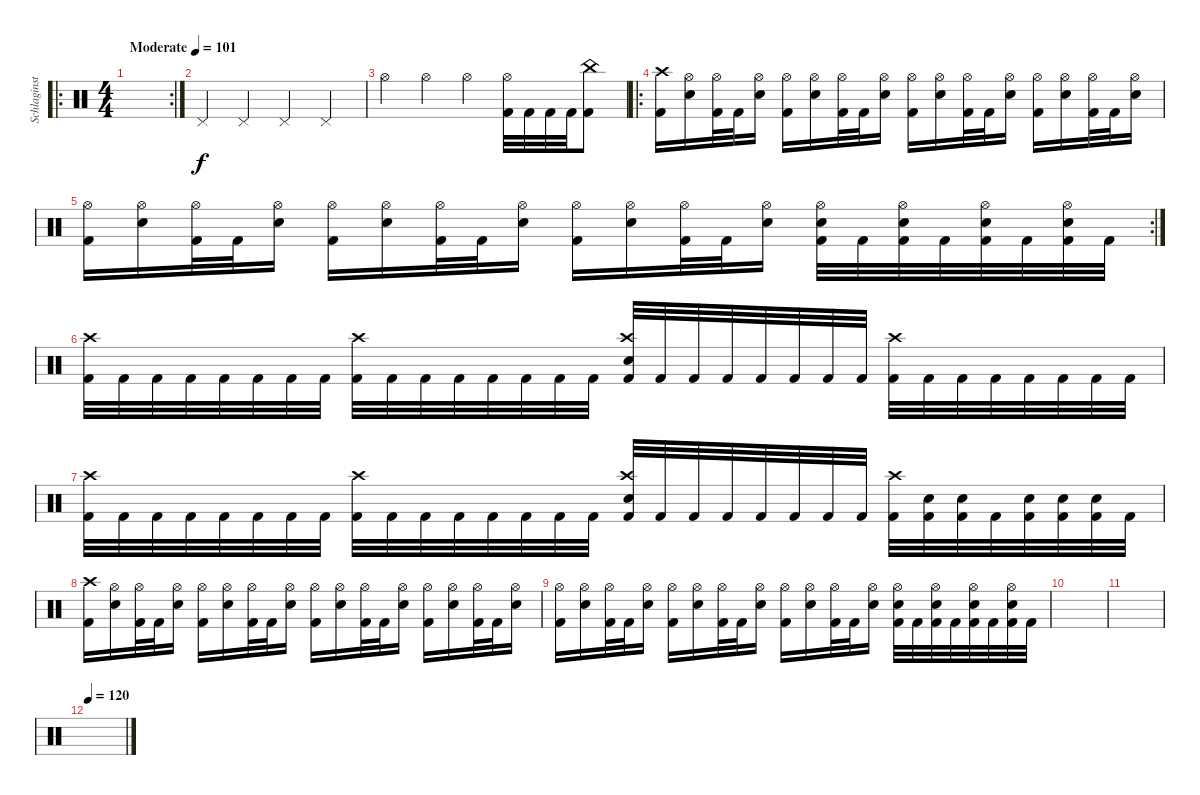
\track ("Schlaginstrumente - Auswahl" "Schlaginst") {instrument percussion}
\staff {score}
\articulation defaults
\ro
\rc 2
\ts (4 4)
\tempo (101 "Moderate")
\clef neutral
\ks c
|
"Pedal Hi-Hat (hit)".4 "Pedal Hi-Hat (hit)".4 "Pedal Hi-Hat (hit)".4 "Pedal Hi-Hat (hit)".4 |
"Hi-Hat (open)".4 "Hi-Hat (open)".4 "Hi-Hat (open)".4 ("Hi-Hat (open)" "Kick (hit) 2").32 "Kick (hit) 2".32 "Kick (hit) 2".32 "Kick (hit) 2".32 ("China (hit)" "Kick (hit) 2").8 |
\ro
("Crash high (hit)" "Kick (hit) 2").16 ("Hi-Hat (open)" "Electric Snare (hit)").16 ("Hi-Hat (open)" "Kick (hit) 2").32 "Kick (hit) 2".32 ("Hi-Hat (open)" "Electric Snare (hit)").16 ("Hi-Hat (open)" "Kick (hit) 2").16 ("Hi-Hat (open)" "Electric Snare (hit)").16 ("Hi-Hat (open)" "Kick (hit) 2").32 "Kick (hit) 2".32 ("Hi-Hat (open)" "Electric Snare (hit)").16 ("Hi-Hat (open)" "Kick (hit) 2").16 ("Hi-Hat (open)" "Electric Snare (hit)").16 ("Hi-Hat (open)" "Kick (hit) 2").32 "Kick (hit) 2".32 ("Hi-Hat (open)" "Electric Snare (hit)").16 ("Hi-Hat (open)" "Kick (hit) 2").16 ("Hi-Hat (open)" "Electric Snare (hit)").16 ("Hi-Hat (open)" "Kick (hit) 2").32 "Kick (hit) 2".32 ("Hi-Hat (open)" "Electric Snare (hit)").16 |
\rc 2
("Hi-Hat (open)" "Kick (hit) 2").16 ("Hi-Hat (open)" "Electric Snare (hit)").16 ("Hi-Hat (open)" "Kick (hit) 2").32 "Kick (hit) 2".32 ("Hi-Hat (open)" "Electric Snare (hit)").16 ("Hi-Hat (open)" "Kick (hit) 2").16 ("Hi-Hat (open)" "Electric Snare (hit)").16 ("Hi-Hat (open)" "Kick (hit) 2").32 "Kick (hit) 2".32 ("Hi-Hat (open)" "Electric Snare (hit)").16 ("Hi-Hat (open)" "Kick (hit) 2").16 ("Hi-Hat (open)" "Electric Snare (hit)").16 ("Hi-Hat (open)" "Kick (hit) 2").32 "Kick (hit) 2".32 ("Hi-Hat (open)" "Electric Snare (hit)").16 ("Hi-Hat (open)" "Electric Snare (hit)" "Kick (hit) 2").32 "Kick (hit) 2".32 ("Hi-Hat (open)" "Electric Snare (hit)" "Kick (hit) 2").32 "Kick (hit) 2".32 ("Hi-Hat (open)" "Electric Snare (hit)" "Kick (hit) 2").32 "Kick (hit) 2".32 ("Hi-Hat (open)" "Electric Snare (hit)" "Kick (hit) 2").32 "Kick (hit) 2".32 |
("Crash high (hit)" "Kick (hit) 2").32 "Kick (hit) 2".32 "Kick (hit) 2".32 "Kick (hit) 2".32 "Kick (hit) 2".32 "Kick (hit) 2".32 "Kick (hit) 2".32 "Kick (hit) 2".32 ("Crash high (hit)" "Kick (hit) 2").32 "Kick (hit) 2".32 "Kick (hit) 2".32 "Kick (hit) 2".32 "Kick (hit) 2".32 "Kick (hit) 2".32 "Kick (hit) 2".32 "Kick (hit) 2".32 ("Crash high (hit)" "Electric Snare (hit)" "Kick (hit) 2").32 "Kick (hit) 2".32 "Kick (hit) 2".32 "Kick (hit) 2".32 "Kick (hit) 2".32 "Kick (hit) 2".32 "Kick (hit) 2".32 "Kick (hit) 2".32 ("Crash high (hit)" "Kick (hit) 2").32 "Kick (hit) 2".32 "Kick (hit) 2".32 "Kick (hit) 2".32 "Kick (hit) 2".32 "Kick (hit) 2".32 "Kick (hit) 2".32 "Kick (hit) 2".32 |
("Crash high (hit)" "Kick (hit) 2").32 "Kick (hit) 2".32 "Kick (hit) 2".32 "Kick (hit) 2".32 "Kick (hit) 2".32 "Kick (hit) 2".32 "Kick (hit) 2".32 "Kick (hit) 2".32 ("Crash high (hit)" "Kick (hit) 2").32 "Kick (hit) 2".32 "Kick (hit) 2".32 "Kick (hit) 2".32 "Kick (hit) 2".32 "Kick (hit) 2".32 "Kick (hit) 2".32 "Kick (hit) 2".32 ("Crash high (hit)" "Electric Snare (hit)" "Kick (hit) 2").32 "Kick (hit) 2".32 "Kick (hit) 2".32 "Kick (hit) 2".32 "Kick (hit) 2".32 "Kick (hit) 2".32 "Kick (hit) 2".32 "Kick (hit) 2".32 ("Crash high (hit)" "Kick (hit) 2").32 ("Electric Snare (hit)" "Kick (hit) 2").32 ("Electric Snare (hit)" "Kick (hit) 2").32 "Kick (hit) 2".32 ("Electric Snare (hit)" "Kick (hit) 2").32 ("Electric Snare (hit)" "Kick (hit) 2").32 ("Electric Snare (hit)" "Kick (hit) 2").32 "Kick (hit) 2".32 |
("Crash high (hit)" "Kick (hit) 2").16 ("Hi-Hat (open)" "Electric Snare (hit)").16 ("Hi-Hat (open)" "Kick (hit) 2").32 "Kick (hit) 2".32 ("Hi-Hat (open)" "Electric Snare (hit)").16 ("Hi-Hat (open)" "Kick (hit) 2").16 ("Hi-Hat (open)" "Electric Snare (hit)").16 ("Hi-Hat (open)" "Kick (hit) 2").32 "Kick (hit) 2".32 ("Hi-Hat (open)" "Electric Snare (hit)").16 ("Hi-Hat (open)" "Kick (hit) 2").16 ("Hi-Hat (open)" "Electric Snare (hit)").16 ("Hi-Hat (open)" "Kick (hit) 2").32 "Kick (hit) 2".32 ("Hi-Hat (open)" "Electric Snare (hit)").16 ("Hi-Hat (open)" "Kick (hit) 2").16 ("Hi-Hat (open)" "Electric Snare (hit)").16 ("Hi-Hat (open)" "Kick (hit) 2").32 "Kick (hit) 2".32 ("Hi-Hat (open)" "Electric Snare (hit)").16 |
("Hi-Hat (open)" "Kick (hit) 2").16 ("Hi-Hat (open)" "Electric Snare (hit)").16 ("Hi-Hat (open)" "Kick (hit) 2").32 "Kick (hit) 2".32 ("Hi-Hat (open)" "Electric Snare (hit)").16 ("Hi-Hat (open)" "Kick (hit) 2").16 ("Hi-Hat (open)" "Electric Snare (hit)").16 ("Hi-Hat (open)" "Kick (hit) 2").32 "Kick (hit) 2".32 ("Hi-Hat (open)" "Electric Snare (hit)").16 ("Hi-Hat (open)" "Kick (hit) 2").16 ("Hi-Hat (open)" "Electric Snare (hit)").16 ("Hi-Hat (open)" "Kick (hit) 2").32 "Kick (hit) 2".32 ("Hi-Hat (open)" "Electric Snare (hit)").16 ("Hi-Hat (open)" "Electric Snare (hit)" "Kick (hit) 2").32 "Kick (hit) 2".32 ("Hi-Hat (open)" "Electric Snare (hit)" "Kick (hit) 2").32 "Kick (hit) 2".32 ("Hi-Hat (open)" "Electric Snare (hit)" "Kick (hit) 2").32 "Kick (hit) 2".32 ("Hi-Hat (open)" "Electric Snare (hit)" "Kick (hit) 2").32 "Kick (hit) 2".32 |
|
|
\tempo 120
